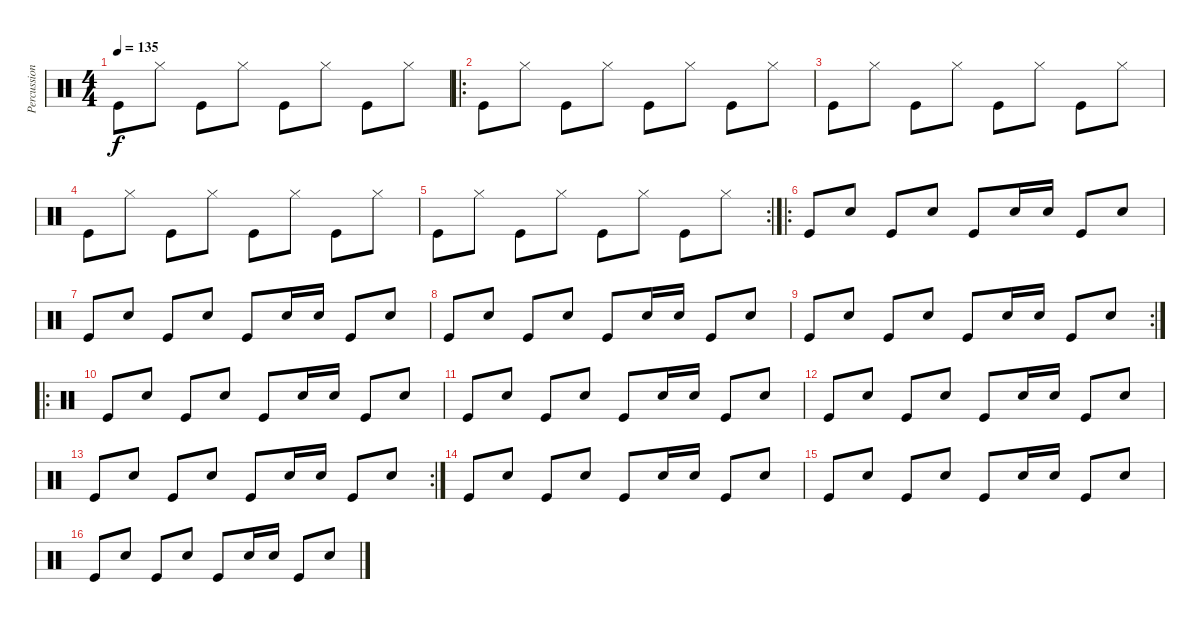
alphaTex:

\track ("Percussions" "Percussion") {instrument percussion}
\staff {score}
\articulation defaults
\ts (4 4)
\tempo 135
\clef neutral
\ks c "Kick (hit)".8{dy f} "Hi-Hat (closed)".8 "Kick (hit)".8 "Hi-Hat (closed)".8 "Kick (hit)".8 "Hi-Hat (closed)".8 "Kick (hit)".8 "Hi-Hat (closed)".8
|
\ro "Kick (hit)".8 "Hi-Hat (closed)".8 "Kick (hit)".8 "Hi-Hat (closed)".8 "Kick (hit)".8 "Hi-Hat (closed)".8 "Kick (hit)".8 "Hi-Hat (closed)".8
|
"Kick (hit)".8 "Hi-Hat (closed)".8 "Kick (hit)".8 "Hi-Hat (closed)".8 "Kick (hit)".8 "Hi-Hat (closed)".8 "Kick (hit)".8 "Hi-Hat (closed)".8 |
"Kick (hit)".8 "Hi-Hat (closed)".8 "Kick (hit)".8 "Hi-Hat (closed)".8 "Kick (hit)".8 "Hi-Hat (closed)".8 "Kick (hit)".8 "Hi-Hat (closed)".8 |
\rc 2 "Kick (hit)".8 "Hi-Hat (closed)".8 "Kick (hit)".8 "Hi-Hat (closed)".8 "Kick (hit)".8 "Hi-Hat (closed)".8 "Kick (hit)".8 "Hi-Hat (closed)".8
|
\ro "Kick (hit)".8 "Snare (hit) 2".8 "Kick (hit)".8 "Snare (hit) 2".8 "Kick (hit)".8 "Snare (hit) 2".16 "Snare (hit) 2".16 "Kick (hit)".8 "Snare (hit) 2".8
|
"Kick (hit)".8 "Snare (hit) 2".8 "Kick (hit)".8 "Snare (hit) 2".8 "Kick (hit)".8 "Snare (hit) 2".16 "Snare (hit) 2".16 "Kick (hit)".8 "Snare (hit) 2".8 |
"Kick (hit)".8 "Snare (hit) 2".8 "Kick (hit)".8 "Snare (hit) 2".8 "Kick (hit)".8 "Snare (hit) 2".16 "Snare (hit) 2".16 "Kick (hit)".8 "Snare (hit) 2".8 |
\rc 2 "Kick (hit)".8 "Snare (hit) 2".8 "Kick (hit)".8 "Snare (hit) 2".8 "Kick (hit)".8 "Snare (hit) 2".16 "Snare (hit) 2".16 "Kick (hit)".8 "Snare (hit) 2".8
|
\ro "Kick (hit)".8 "Snare (hit) 2".8 "Kick (hit)".8 "Snare (hit) 2".8 "Kick (hit)".8 "Snare (hit) 2".16 "Snare (hit) 2".16 "Kick (hit)".8 "Snare (hit) 2".8
|
"Kick (hit)".8 "Snare (hit) 2".8 "Kick (hit)".8 "Snare (hit) 2".8 "Kick (hit)".8 "Snare (hit) 2".16 "Snare (hit) 2".16 "Kick (hit)".8 "Snare (hit) 2".8 |
"Kick (hit)".8 "Snare (hit) 2".8 "Kick (hit)".8 "Snare (hit) 2".8 "Kick (hit)".8 "Snare (hit) 2".16 "Snare (hit) 2".16 "Kick (hit)".8 "Snare (hit) 2".8 |
\rc 2 "Kick (hit)".8 "Snare (hit) 2".8 "Kick (hit)".8 "Snare (hit) 2".8 "Kick (hit)".8 "Snare (hit) 2".16 "Snare (hit) 2".16 "Kick (hit)".8 "Snare (hit) 2".8
|
"Kick (hit)".8 "Snare (hit) 2".8 "Kick (hit)".8 "Snare (hit) 2".8 "Kick (hit)".8 "Snare (hit) 2".16 "Snare (hit) 2".16 "Kick (hit)".8 "Snare (hit) 2".8 |
"Kick (hit)".8 "Snare (hit) 2".8 "Kick (hit)".8 "Snare (hit) 2".8 "Kick (hit)".8 "Snare (hit) 2".16 "Snare (hit) 2".16 "Kick (hit)".8 "Snare (hit) 2".8 |
"Kick (hit)".8 "Snare (hit) 2".8 "Kick (hit)".8 "Snare (hit) 2".8 "Kick (hit)".8 "Snare (hit) 2".16 "Snare (hit) 2".16 "Kick (hit)".8 "Snare (hit) 2".8
